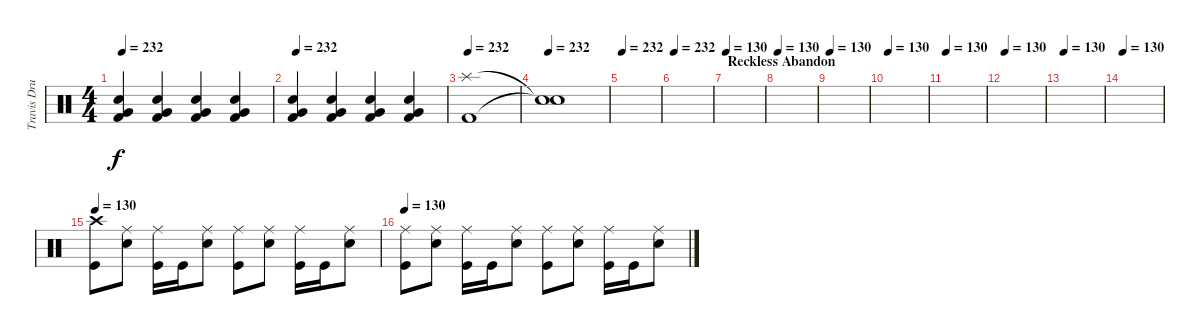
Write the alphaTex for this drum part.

\track ("Travis Drums" "Travis Dru") {instrument percussion}
\staff {score}
\articulation defaults
\ts (4 4)
\tempo 232
\clef neutral
\ks c
("Very Low Tom (hit)" "Electric Snare (hit)" "Kick (hit) 2").4{dy f} ("Very Low Tom (hit)" "Electric Snare (hit)" "Kick (hit) 2").4 ("Very Low Tom (hit)" "Electric Snare (hit)" "Kick (hit) 2").4 ("Very Low Tom (hit)" "Electric Snare (hit)" "Kick (hit) 2").4 |
\tempo 232
("Very Low Tom (hit)" "Electric Snare (hit)" "Kick (hit) 2").4 ("Very Low Tom (hit)" "Electric Snare (hit)" "Kick (hit) 2").4 ("Very Low Tom (hit)" "Electric Snare (hit)" "Kick (hit) 2").4 ("Very Low Tom (hit)" "Electric Snare (hit)" "Kick (hit) 2").4 |
\tempo 232
("Splash (hit)" "Kick (hit) 2").1 |
\tempo 232
("Snare (hit)"{t} "Snare (hit)"{t}).1 |
\tempo 232
|
\tempo 232
|
\section ("" "Reckless Abandon")
\tempo 130
|
\tempo 130
|
\tempo 130
|
\tempo 130
|
\tempo 130
|
\tempo 130
|
\tempo 130
|
\tempo 130
|
\tempo 130
("Crash high (hit)" "Kick (hit)").8 ("Ride (middle)" "Snare (hit) 2").8 ("Ride (middle)" "Kick (hit)").16 "Kick (hit)".16 ("Ride (middle)" "Snare (hit) 2").8 ("Ride (middle)" "Kick (hit)").8 ("Ride (middle)" "Snare (hit) 2").8 ("Ride (middle)" "Kick (hit)").16 "Kick (hit)".16 ("Ride (middle)" "Snare (hit) 2").8 |
\tempo 130
("Ride (middle)" "Kick (hit)").8 ("Ride (middle)" "Snare (hit) 2").8 ("Ride (middle)" "Kick (hit)").16 "Kick (hit)".16 ("Ride (middle)" "Snare (hit) 2").8 ("Ride (middle)" "Kick (hit)").8 ("Ride (middle)" "Snare (hit) 2").8 ("Ride (middle)" "Kick (hit)").16 "Kick (hit)".16 ("Ride (middle)" "Snare (hit) 2").8
